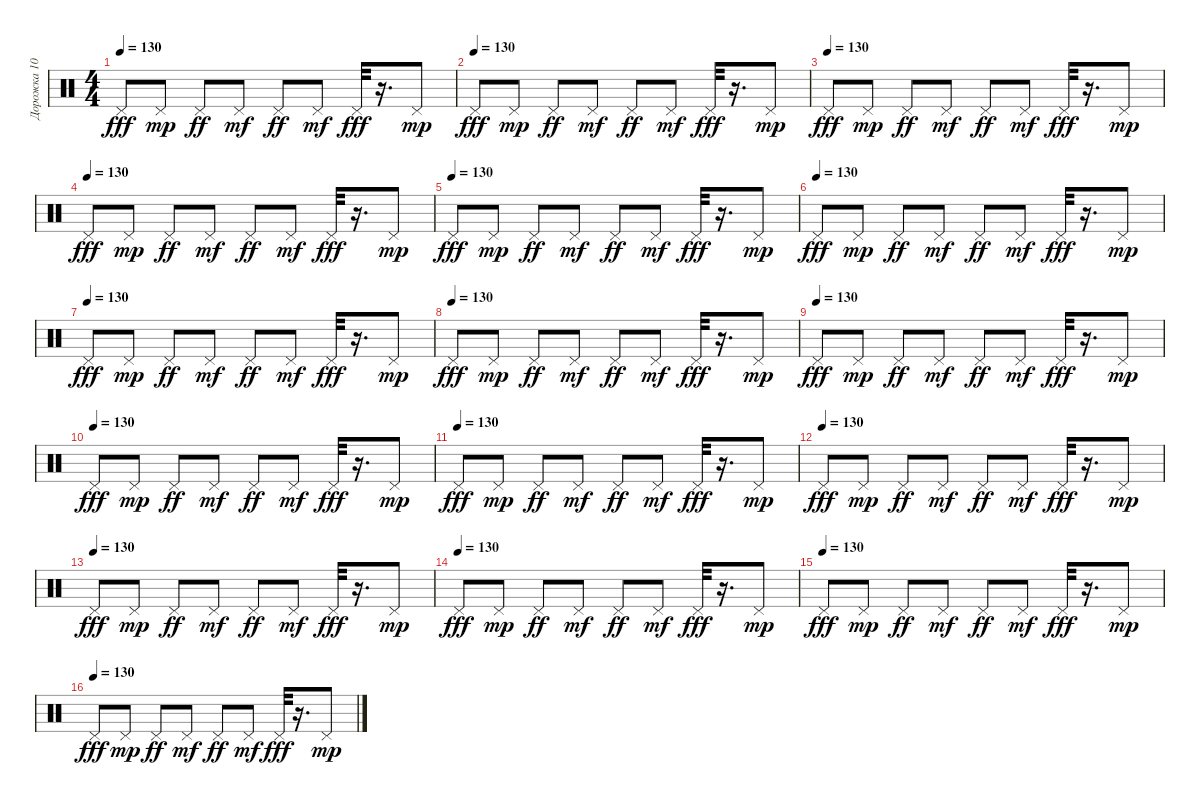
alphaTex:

\track ("Дорожка 10" "Дорожка 10") {instrument percussion}
\staff {score}
\articulation defaults
\ts (4 4)
\tempo 130
\clef neutral
\ks c "Pedal Hi-Hat (hit)".8{dy fff} "Pedal Hi-Hat (hit)".8{dy mp} "Pedal Hi-Hat (hit)".8{dy ff} "Pedal Hi-Hat (hit)".8{dy mf} "Pedal Hi-Hat (hit)".8{dy ff} "Pedal Hi-Hat (hit)".8{dy mf} "Pedal Hi-Hat (hit)".32{dy fff}
r.16{d} "Pedal Hi-Hat (hit)".8{dy mp} |
\tempo (130)
"Pedal Hi-Hat (hit)".8{dy fff} "Pedal Hi-Hat (hit)".8{dy mp} "Pedal Hi-Hat (hit)".8{dy ff} "Pedal Hi-Hat (hit)".8{dy mf} "Pedal Hi-Hat (hit)".8{dy ff} "Pedal Hi-Hat (hit)".8{dy mf} "Pedal Hi-Hat (hit)".32{dy fff} r.16{d} "Pedal Hi-Hat (hit)".8{dy mp} |
\tempo (130)
"Pedal Hi-Hat (hit)".8{dy fff} "Pedal Hi-Hat (hit)".8{dy mp} "Pedal Hi-Hat (hit)".8{dy ff} "Pedal Hi-Hat (hit)".8{dy mf} "Pedal Hi-Hat (hit)".8{dy ff} "Pedal Hi-Hat (hit)".8{dy mf} "Pedal Hi-Hat (hit)".32{dy fff} r.16{d} "Pedal Hi-Hat (hit)".8{dy mp} |
\tempo (130)
"Pedal Hi-Hat (hit)".8{dy fff} "Pedal Hi-Hat (hit)".8{dy mp} "Pedal Hi-Hat (hit)".8{dy ff} "Pedal Hi-Hat (hit)".8{dy mf} "Pedal Hi-Hat (hit)".8{dy ff} "Pedal Hi-Hat (hit)".8{dy mf} "Pedal Hi-Hat (hit)".32{dy fff} r.16{d} "Pedal Hi-Hat (hit)".8{dy mp} |
\tempo (130)
"Pedal Hi-Hat (hit)".8{dy fff} "Pedal Hi-Hat (hit)".8{dy mp} "Pedal Hi-Hat (hit)".8{dy ff} "Pedal Hi-Hat (hit)".8{dy mf} "Pedal Hi-Hat (hit)".8{dy ff} "Pedal Hi-Hat (hit)".8{dy mf} "Pedal Hi-Hat (hit)".32{dy fff} r.16{d} "Pedal Hi-Hat (hit)".8{dy mp} |
\tempo (130)
"Pedal Hi-Hat (hit)".8{dy fff} "Pedal Hi-Hat (hit)".8{dy mp} "Pedal Hi-Hat (hit)".8{dy ff} "Pedal Hi-Hat (hit)".8{dy mf} "Pedal Hi-Hat (hit)".8{dy ff} "Pedal Hi-Hat (hit)".8{dy mf} "Pedal Hi-Hat (hit)".32{dy fff} r.16{d} "Pedal Hi-Hat (hit)".8{dy mp} |
\tempo (130)
"Pedal Hi-Hat (hit)".8{dy fff} "Pedal Hi-Hat (hit)".8{dy mp} "Pedal Hi-Hat (hit)".8{dy ff} "Pedal Hi-Hat (hit)".8{dy mf} "Pedal Hi-Hat (hit)".8{dy ff} "Pedal Hi-Hat (hit)".8{dy mf} "Pedal Hi-Hat (hit)".32{dy fff} r.16{d} "Pedal Hi-Hat (hit)".8{dy mp} |
\tempo (130)
"Pedal Hi-Hat (hit)".8{dy fff} "Pedal Hi-Hat (hit)".8{dy mp} "Pedal Hi-Hat (hit)".8{dy ff} "Pedal Hi-Hat (hit)".8{dy mf} "Pedal Hi-Hat (hit)".8{dy ff} "Pedal Hi-Hat (hit)".8{dy mf} "Pedal Hi-Hat (hit)".32{dy fff} r.16{d} "Pedal Hi-Hat (hit)".8{dy mp} |
\tempo (130)
"Pedal Hi-Hat (hit)".8{dy fff} "Pedal Hi-Hat (hit)".8{dy mp} "Pedal Hi-Hat (hit)".8{dy ff} "Pedal Hi-Hat (hit)".8{dy mf} "Pedal Hi-Hat (hit)".8{dy ff} "Pedal Hi-Hat (hit)".8{dy mf} "Pedal Hi-Hat (hit)".32{dy fff} r.16{d} "Pedal Hi-Hat (hit)".8{dy mp} |
\tempo (130)
"Pedal Hi-Hat (hit)".8{dy fff} "Pedal Hi-Hat (hit)".8{dy mp} "Pedal Hi-Hat (hit)".8{dy ff} "Pedal Hi-Hat (hit)".8{dy mf} "Pedal Hi-Hat (hit)".8{dy ff} "Pedal Hi-Hat (hit)".8{dy mf} "Pedal Hi-Hat (hit)".32{dy fff} r.16{d} "Pedal Hi-Hat (hit)".8{dy mp} |
\tempo (130)
"Pedal Hi-Hat (hit)".8{dy fff} "Pedal Hi-Hat (hit)".8{dy mp} "Pedal Hi-Hat (hit)".8{dy ff} "Pedal Hi-Hat (hit)".8{dy mf} "Pedal Hi-Hat (hit)".8{dy ff} "Pedal Hi-Hat (hit)".8{dy mf} "Pedal Hi-Hat (hit)".32{dy fff} r.16{d} "Pedal Hi-Hat (hit)".8{dy mp} |
\tempo (130)
"Pedal Hi-Hat (hit)".8{dy fff} "Pedal Hi-Hat (hit)".8{dy mp} "Pedal Hi-Hat (hit)".8{dy ff} "Pedal Hi-Hat (hit)".8{dy mf} "Pedal Hi-Hat (hit)".8{dy ff} "Pedal Hi-Hat (hit)".8{dy mf} "Pedal Hi-Hat (hit)".32{dy fff} r.16{d} "Pedal Hi-Hat (hit)".8{dy mp} |
\tempo (130)
"Pedal Hi-Hat (hit)".8{dy fff} "Pedal Hi-Hat (hit)".8{dy mp} "Pedal Hi-Hat (hit)".8{dy ff} "Pedal Hi-Hat (hit)".8{dy mf} "Pedal Hi-Hat (hit)".8{dy ff} "Pedal Hi-Hat (hit)".8{dy mf} "Pedal Hi-Hat (hit)".32{dy fff} r.16{d} "Pedal Hi-Hat (hit)".8{dy mp} |
\tempo (130)
"Pedal Hi-Hat (hit)".8{dy fff} "Pedal Hi-Hat (hit)".8{dy mp} "Pedal Hi-Hat (hit)".8{dy ff} "Pedal Hi-Hat (hit)".8{dy mf} "Pedal Hi-Hat (hit)".8{dy ff} "Pedal Hi-Hat (hit)".8{dy mf} "Pedal Hi-Hat (hit)".32{dy fff} r.16{d} "Pedal Hi-Hat (hit)".8{dy mp} |
\tempo (130)
"Pedal Hi-Hat (hit)".8{dy fff} "Pedal Hi-Hat (hit)".8{dy mp} "Pedal Hi-Hat (hit)".8{dy ff} "Pedal Hi-Hat (hit)".8{dy mf} "Pedal Hi-Hat (hit)".8{dy ff} "Pedal Hi-Hat (hit)".8{dy mf} "Pedal Hi-Hat (hit)".32{dy fff} r.16{d} "Pedal Hi-Hat (hit)".8{dy mp} |
\tempo (130)
"Pedal Hi-Hat (hit)".8{dy fff} "Pedal Hi-Hat (hit)".8{dy mp} "Pedal Hi-Hat (hit)".8{dy ff} "Pedal Hi-Hat (hit)".8{dy mf} "Pedal Hi-Hat (hit)".8{dy ff} "Pedal Hi-Hat (hit)".8{dy mf} "Pedal Hi-Hat (hit)".32{dy fff} r.16{d} "Pedal Hi-Hat (hit)".8{dy mp}
